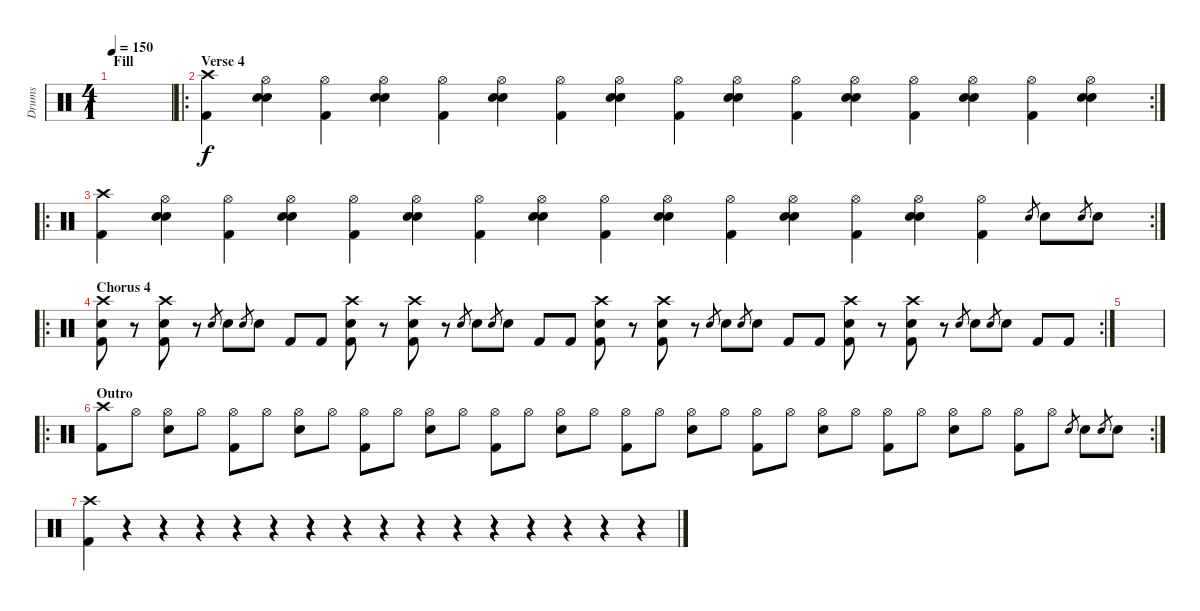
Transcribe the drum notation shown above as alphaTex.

\track ("Drums" "Drums") {instrument percussion}
\staff {score}
\articulation defaults
\ts (4 1)
\section ("" "Fill")
\tempo 150
\clef neutral
\ks c
|
\ro
\rc 2
\section ("" "Verse 4")
("Crash high (hit)" "Kick (hit) 2").4 ("Hi-Hat (open)" "Electric Snare (hit)" "Electric Snare (hit)").4 ("Hi-Hat (open)" "Kick (hit) 2").4 ("Hi-Hat (open)" "Electric Snare (hit)" "Electric Snare (hit)").4 ("Hi-Hat (open)" "Kick (hit) 2").4 ("Hi-Hat (open)" "Electric Snare (hit)" "Electric Snare (hit)").4 ("Hi-Hat (open)" "Kick (hit) 2").4 ("Hi-Hat (open)" "Electric Snare (hit)" "Electric Snare (hit)").4 ("Hi-Hat (open)" "Kick (hit) 2").4 ("Hi-Hat (open)" "Electric Snare (hit)" "Electric Snare (hit)").4 ("Hi-Hat (open)" "Kick (hit) 2").4 ("Hi-Hat (open)" "Electric Snare (hit)" "Electric Snare (hit)").4 ("Hi-Hat (open)" "Kick (hit) 2").4 ("Hi-Hat (open)" "Electric Snare (hit)" "Electric Snare (hit)").4 ("Hi-Hat (open)" "Kick (hit) 2").4 ("Hi-Hat (open)" "Electric Snare (hit)" "Electric Snare (hit)").4 |
\ro
\rc 2
("Crash high (hit)" "Kick (hit) 2").4 ("Hi-Hat (open)" "Electric Snare (hit)" "Electric Snare (hit)").4 ("Hi-Hat (open)" "Kick (hit) 2").4 ("Hi-Hat (open)" "Electric Snare (hit)" "Electric Snare (hit)").4 ("Hi-Hat (open)" "Kick (hit) 2").4 ("Hi-Hat (open)" "Electric Snare (hit)" "Electric Snare (hit)").4 ("Hi-Hat (open)" "Kick (hit) 2").4 ("Hi-Hat (open)" "Electric Snare (hit)" "Electric Snare (hit)").4 ("Hi-Hat (open)" "Kick (hit) 2").4 ("Hi-Hat (open)" "Electric Snare (hit)" "Electric Snare (hit)").4 ("Hi-Hat (open)" "Kick (hit) 2").4 ("Hi-Hat (open)" "Electric Snare (hit)" "Electric Snare (hit)").4 ("Hi-Hat (open)" "Kick (hit) 2").4 ("Hi-Hat (open)" "Electric Snare (hit)" "Electric Snare (hit)").4 ("Hi-Hat (open)" "Kick (hit) 2").4 "Electric Snare (hit)".8{gr} "Electric Snare (hit)".8 "Electric Snare (hit)".8{gr} "Electric Snare (hit)".8 |
\ro
\rc 2
\section ("" "Chorus 4")
("Crash high (hit)" "Electric Snare (hit)" "Kick (hit) 2").8 r.8 ("Crash high (hit)" "Electric Snare (hit)" "Kick (hit) 2").8 r.8 "Electric Snare (hit)".8{gr} "Electric Snare (hit)".8 "Electric Snare (hit)".8{gr} "Electric Snare (hit)".8 "Kick (hit) 2".8 "Kick (hit) 2".8 ("Crash high (hit)" "Electric Snare (hit)" "Kick (hit) 2").8 r.8 ("Crash high (hit)" "Electric Snare (hit)" "Kick (hit) 2").8 r.8 "Electric Snare (hit)".8{gr} "Electric Snare (hit)".8 "Electric Snare (hit)".8{gr} "Electric Snare (hit)".8 "Kick (hit) 2".8 "Kick (hit) 2".8 ("Crash high (hit)" "Electric Snare (hit)" "Kick (hit) 2").8 r.8 ("Crash high (hit)" "Electric Snare (hit)" "Kick (hit) 2").8 r.8 "Electric Snare (hit)".8{gr} "Electric Snare (hit)".8 "Electric Snare (hit)".8{gr} "Electric Snare (hit)".8 "Kick (hit) 2".8 "Kick (hit) 2".8 ("Crash high (hit)" "Electric Snare (hit)" "Kick (hit) 2").8 r.8 ("Crash high (hit)" "Electric Snare (hit)" "Kick (hit) 2").8 r.8 "Electric Snare (hit)".8{gr} "Electric Snare (hit)".8 "Electric Snare (hit)".8{gr} "Electric Snare (hit)".8 "Kick (hit) 2".8 "Kick (hit) 2".8 |
|
\ro
\rc 2
\section ("" "Outro")
("Crash high (hit)" "Kick (hit) 2").8 "Hi-Hat (open)".8 ("Hi-Hat (open)" "Electric Snare (hit)").8 "Hi-Hat (open)".8 ("Hi-Hat (open)" "Kick (hit) 2").8 "Hi-Hat (open)".8 ("Hi-Hat (open)" "Electric Snare (hit)").8 "Hi-Hat (open)".8 ("Hi-Hat (open)" "Kick (hit) 2").8 "Hi-Hat (open)".8 ("Hi-Hat (open)" "Electric Snare (hit)").8 "Hi-Hat (open)".8 ("Hi-Hat (open)" "Kick (hit) 2").8 "Hi-Hat (open)".8 ("Hi-Hat (open)" "Electric Snare (hit)").8 "Hi-Hat (open)".8 ("Hi-Hat (open)" "Kick (hit) 2").8 "Hi-Hat (open)".8 ("Hi-Hat (open)" "Electric Snare (hit)").8 "Hi-Hat (open)".8 ("Hi-Hat (open)" "Kick (hit) 2").8 "Hi-Hat (open)".8 ("Hi-Hat (open)" "Electric Snare (hit)").8 "Hi-Hat (open)".8 ("Hi-Hat (open)" "Kick (hit) 2").8 "Hi-Hat (open)".8 ("Hi-Hat (open)" "Electric Snare (hit)").8 "Hi-Hat (open)".8 ("Hi-Hat (open)" "Kick (hit) 2").8 "Hi-Hat (open)".8 "Electric Snare (hit)".8{gr} "Electric Snare (hit)".8 "Electric Snare (hit)".8{gr} "Electric Snare (hit)".8 |
("Crash high (hit)" "Kick (hit) 2").4 r.4 r.4 r.4 r.4 r.4 r.4 r.4 r.4 r.4 r.4 r.4 r.4 r.4 r.4 r.4
